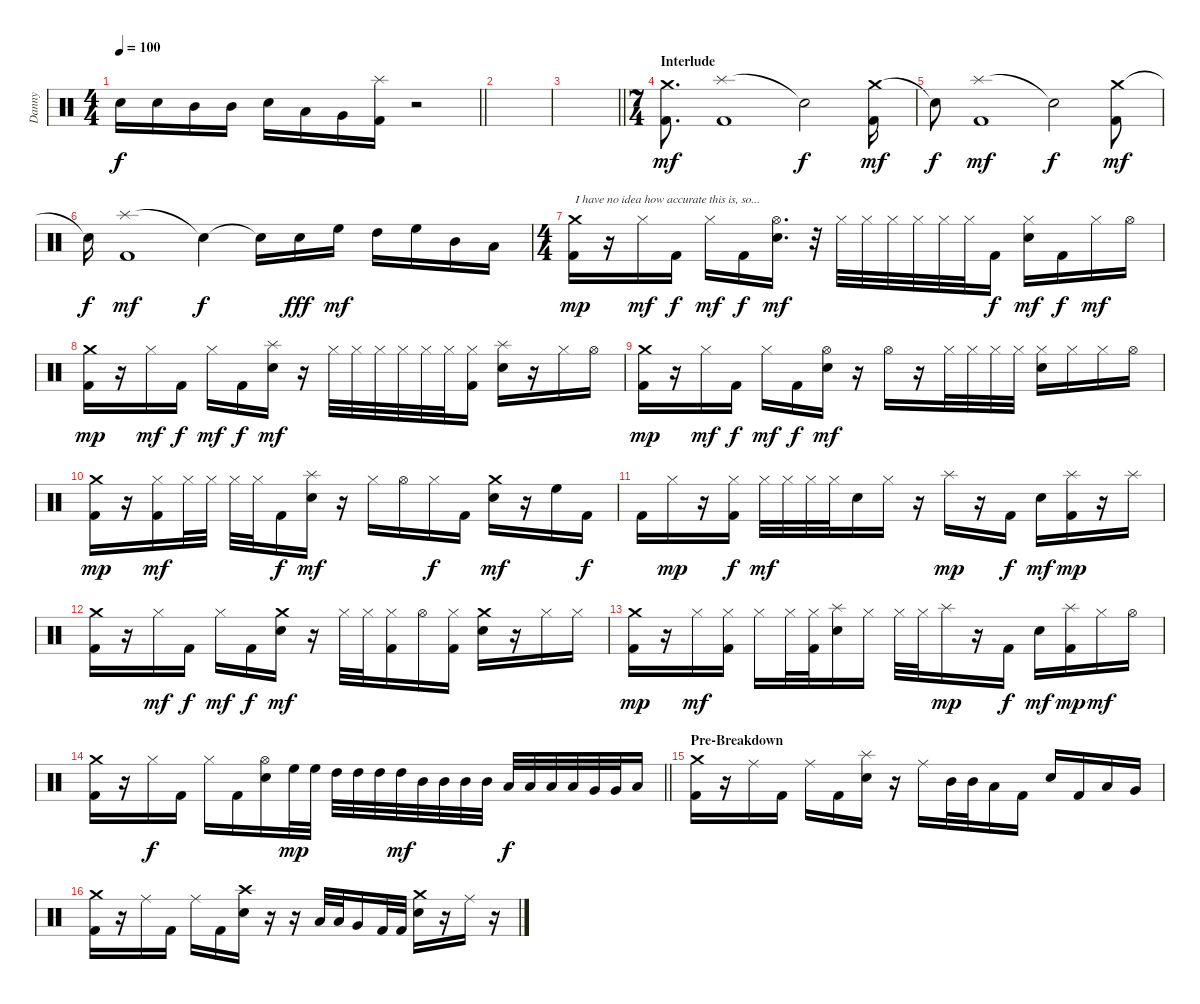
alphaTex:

\track ("Danny" "Danny") {instrument percussion}
\staff {score}
\articulation defaults
\ts (4 4)
\tempo 100
\clef neutral
\barLineRight lightlight
\ks c "Electric Snare (hit)".16{dy f} "Electric Snare (hit)".16 "Mid Tom (hit)".16 "Mid Tom (hit)".16 "Electric Snare (hit)".16 "Low Tom (hit)".16 "Very Low Tom (hit)".16
("Splash (hit)" "Kick (hit) 2").16 r.2 |
|
\barLineRight lightlight
|
\ts (7 4)
\section ("" "Interlude")
("Crash medium (hit)" "Kick (hit) 2").8{d dy mf} ("Splash (hit)" "Kick (hit) 2").1 "Snare (hit)"{t}.2{dy f} ("Crash medium (hit)" "Kick (hit) 2").16{dy mf} |
"Snare (hit)"{t}.8{dy f} ("Splash (hit)" "Kick (hit) 2").1{dy mf} "Snare (hit)"{t}.2{dy f} ("Crash medium (hit)" "Kick (hit) 2").8{dy mf} |
"Snare (hit)"{t}.16{dy f} ("Splash (hit)" "Kick (hit) 2").1{dy mf} "Snare (hit)"{t}.4{dy f} "Snare (hit)"{t}.16 "Electric Snare (hit)".16{dy fff} "High Floor Tom (hit)".16{dy mf} "High Tom (hit)".16 "High Floor Tom (hit)".16 "Mid Tom (hit)".16 "Low Tom (hit)".16 |
\ts (4 4)
("Crash medium (hit)" "Kick (hit) 2").16{txt "I have no idea how accurate this is, so..." dy mp volume 9} r.16 "Hi-Hat (closed)".16{dy mf} "Kick (hit) 2".16{dy f} "Hi-Hat (closed)".16{dy mf} "Kick (hit) 2".16{dy f} ("Hi-Hat (open)" "Electric Snare (hit)").16{d dy mf} r.32 "Hi-Hat (closed)".32 "Hi-Hat (closed)".32 "Hi-Hat (closed)".32 "Hi-Hat (closed)".32 "Hi-Hat (closed)".32 "Hi-Hat (closed)".32 "Kick (hit) 2".16{dy f} ("Hi-Hat (closed)" "Electric Snare (hit)").16{dy mf} "Kick (hit) 2".16{dy f} "Hi-Hat (closed)".16{dy mf} "Hi-Hat (open)".16 |
("Crash medium (hit)" "Kick (hit) 2").16{dy mp} r.16 "Hi-Hat (closed)".16{dy mf} "Kick (hit) 2".16{dy f} "Hi-Hat (closed)".16{dy mf} "Kick (hit) 2".16{dy f} ("Splash (hit)" "Electric Snare (hit)").16{dy mf} r.16 "Hi-Hat (closed)".32 "Hi-Hat (closed)".32 "Hi-Hat (closed)".32 "Hi-Hat (closed)".32 "Hi-Hat (closed)".32 "Hi-Hat (closed)".32 ("Hi-Hat (closed)" "Kick (hit) 2").16 ("Splash (hit)" "Electric Snare (hit)").16 r.16 "Hi-Hat (closed)".16 "Hi-Hat (open)".16 |
("Crash medium (hit)" "Kick (hit) 2").16{dy mp} r.16 "Hi-Hat (closed)".16{dy mf} "Kick (hit) 2".16{dy f} "Hi-Hat (closed)".16{dy mf} "Kick (hit) 2".16{dy f} ("Hi-Hat (open)" "Electric Snare (hit)").16{dy mf} r.16 "Hi-Hat (open)".16 r.16 "Hi-Hat (closed)".32 "Hi-Hat (closed)".32 "Hi-Hat (closed)".32 "Hi-Hat (closed)".32 ("Hi-Hat (closed)" "Electric Snare (hit)").16 "Hi-Hat (closed)".16 "Hi-Hat (closed)".16 "Hi-Hat (open)".16 |
("Crash medium (hit)" "Kick (hit) 2").16{dy mp} r.16 ("Hi-Hat (closed)" "Kick (hit) 2").16{dy mf} "Hi-Hat (closed)".32 "Hi-Hat (closed)".32 "Hi-Hat (closed)".32 "Hi-Hat (closed)".32 "Kick (hit) 2".16{dy f} ("Splash (hit)" "Electric Snare (hit)").16{dy mf} r.16 "Hi-Hat (closed)".16 "Hi-Hat (open)".16 "Hi-Hat (closed)".16{dy f} "Kick (hit) 2".16 ("Crash medium (hit)" "Electric Snare (hit)").16{dy mf} r.16 "High Floor Tom (hit)".16 "Kick (hit) 2".16{dy f} |
"Kick (hit) 2".16 "Hi-Hat (closed)".16{dy mp} r.16 ("Hi-Hat (closed)" "Kick (hit) 2").16{dy f} "Hi-Hat (closed)".32{dy mf} "Hi-Hat (closed)".32 "Hi-Hat (closed)".32 "Hi-Hat (closed)".32 "Electric Snare (hit)".16 "Hi-Hat (closed)".16 r.16 "Splash (hit)".16{dy mp} r.16 "Kick (hit) 2".16{dy f} "Electric Snare (hit)".16{dy mf} ("Splash (hit)" "Kick (hit) 2").16{dy mp} r.16 "Splash (hit)".16 |
("Crash medium (hit)" "Kick (hit) 2").16 r.16 "Hi-Hat (closed)".16{dy mf} "Kick (hit) 2".16{dy f} "Hi-Hat (closed)".16{dy mf} "Kick (hit) 2".16{dy f} ("Crash medium (hit)" "Electric Snare (hit)").16{dy mf} r.16 "Hi-Hat (closed)".32 "Hi-Hat (closed)".32 ("Hi-Hat (closed)" "Kick (hit) 2").16 "Hi-Hat (open)".16 ("Hi-Hat (closed)" "Kick (hit) 2").16 ("Crash medium (hit)" "Electric Snare (hit)").16 r.16 "Hi-Hat (closed)".16 "Hi-Hat (closed)".16 |
("Crash medium (hit)" "Kick (hit) 2").16{dy mp} r.16 "Hi-Hat (closed)".16{dy mf} ("Hi-Hat (closed)" "Kick (hit) 2").16 "Hi-Hat (closed)".16 "Hi-Hat (closed)".32 ("Hi-Hat (closed)" "Kick (hit) 2").32 ("Splash (hit)" "Electric Snare (hit)").16 "Hi-Hat (closed)".16 "Hi-Hat (closed)".32 "Hi-Hat (closed)".32 "Splash (hit)".16{dy mp} r.16 "Kick (hit) 2".16{dy f} "Electric Snare (hit)".16{dy mf} ("Splash (hit)" "Kick (hit) 2").16{dy mp} "Hi-Hat (closed)".16{dy mf} "Hi-Hat (open)".16 |
\barLineRight lightlight
("Crash medium (hit)" "Kick (hit) 2").16 r.16 "Hi-Hat (closed)".16{dy f} "Kick (hit) 2".16 "Hi-Hat (closed)".16 "Kick (hit) 2".16 ("Hi-Hat (open)" "Electric Snare (hit)").16 "High Floor Tom (hit)".32{dy mp balance 0} "High Floor Tom (hit)".32 "High Tom (hit)".32{balance 3} "High Tom (hit)".32 "High Tom (hit)".32{balance 5} "High Tom (hit)".32{dy mf} "Mid Tom (hit)".32{balance 7} "Mid Tom (hit)".32 "Mid Tom (hit)".32{balance 9} "Mid Tom (hit)".32 "Low Tom (hit)".32{dy f balance 11} "Low Tom (hit)".32 "Low Tom (hit)".32{balance 13} "Low Tom (hit)".32 "Very Low Tom (hit)".32{balance 15} "Very Low Tom (hit)".32 "Low Floor Tom (hit)".16{balance 16} |
\section ("" "Pre-Breakdown")
("Crash medium (hit)" "Kick (hit) 2").16{volume 11 balance 8} r.16 "Ride (middle)".16 "Kick (hit) 2".16 "Ride (middle)".16 "Kick (hit) 2".16 ("Splash (hit)" "Electric Snare (hit)").16 r.16 "Ride (middle)".16 "Mid Tom (hit)".32 "Mid Tom (hit)".32 "Low Tom (hit)".16 "Kick (hit) 2".16 "Electric Snare (hit)".16 "Kick (hit) 2".16 "Low Tom (hit)".16 "Very Low Tom (hit)".16 |
("Crash medium (hit)" "Kick (hit) 2").16 r.16 "Ride (middle)".16 "Kick (hit) 2".16 "Ride (middle)".16 "Kick (hit) 2".16 ("Crash high (hit)" "Electric Snare (hit)").16 r.16 r.16 "Low Tom (hit)".32 "Low Tom (hit)".32 "Very Low Tom (hit)".16 "Kick (hit) 2".32 "Kick (hit) 2".32 ("Crash medium (hit)" "Electric Snare (hit)").16 r.16 "Ride (middle)".16 r.16
